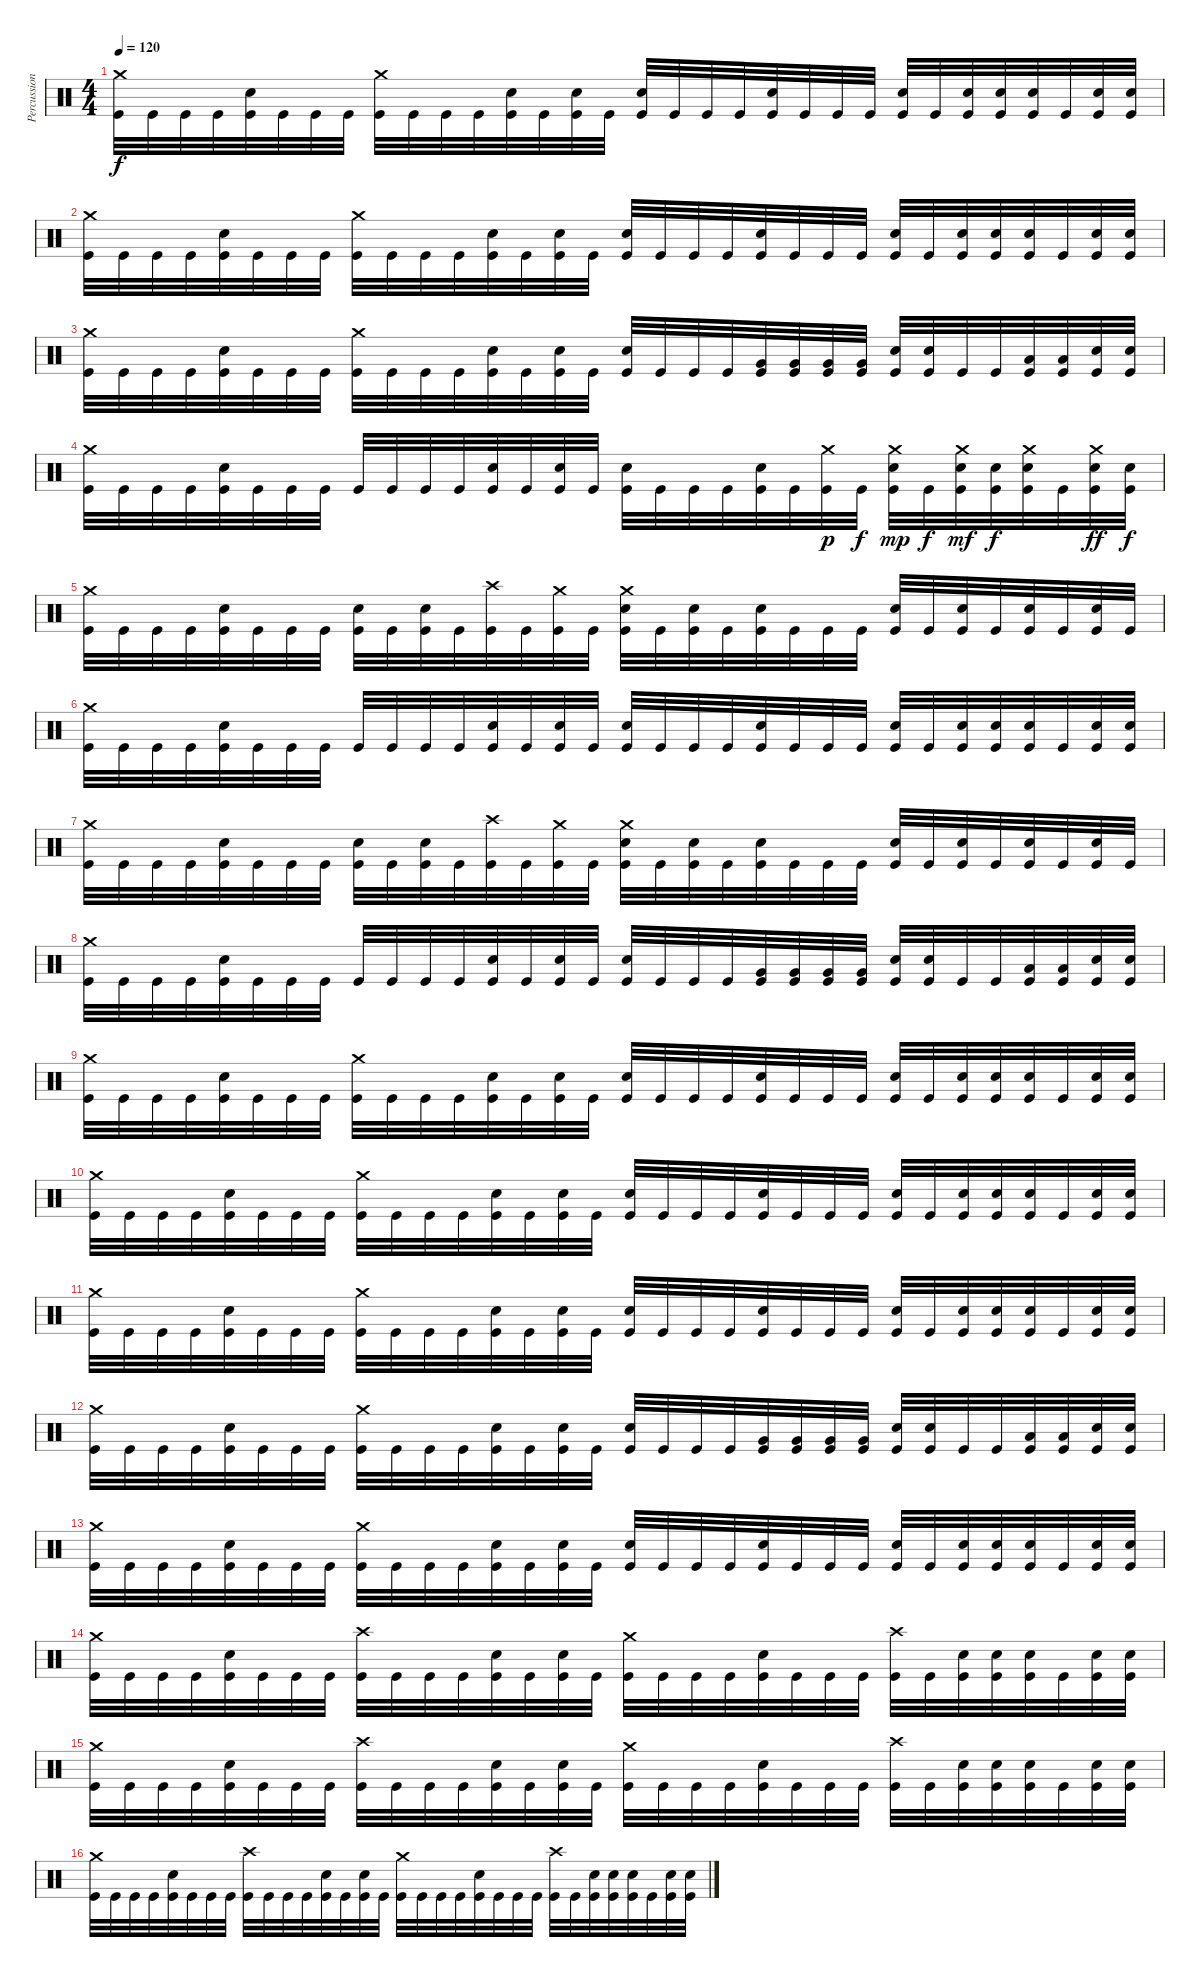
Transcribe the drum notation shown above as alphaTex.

\track ("Percussion" "Percussion") {instrument percussion}
\staff {score}
\articulation defaults
\ts (4 4)
\tempo 120
\clef neutral
\ks c
("Crash medium (hit)" "Kick (hit)").32{dy f} "Kick (hit)".32 "Kick (hit)".32 "Kick (hit)".32 ("Electric Snare (hit)" "Kick (hit)").32 "Kick (hit)".32 "Kick (hit)".32 "Kick (hit)".32 ("Crash medium (hit)" "Kick (hit)").32 "Kick (hit)".32 "Kick (hit)".32 "Kick (hit)".32 ("Electric Snare (hit)" "Kick (hit)").32 "Kick (hit)".32 ("Electric Snare (hit)" "Kick (hit)").32 "Kick (hit)".32 ("Electric Snare (hit)" "Kick (hit)").32 "Kick (hit)".32 "Kick (hit)".32 "Kick (hit)".32 ("Electric Snare (hit)" "Kick (hit)").32 "Kick (hit)".32 "Kick (hit)".32 "Kick (hit)".32 ("Electric Snare (hit)" "Kick (hit)").32 "Kick (hit)".32 ("Electric Snare (hit)" "Kick (hit)").32 ("Electric Snare (hit)" "Kick (hit)").32 ("Electric Snare (hit)" "Kick (hit)").32 "Kick (hit)".32 ("Electric Snare (hit)" "Kick (hit)").32 ("Electric Snare (hit)" "Kick (hit)").32 |
("Crash medium (hit)" "Kick (hit)").32 "Kick (hit)".32 "Kick (hit)".32 "Kick (hit)".32 ("Electric Snare (hit)" "Kick (hit)").32 "Kick (hit)".32 "Kick (hit)".32 "Kick (hit)".32 ("Crash medium (hit)" "Kick (hit)").32 "Kick (hit)".32 "Kick (hit)".32 "Kick (hit)".32 ("Electric Snare (hit)" "Kick (hit)").32 "Kick (hit)".32 ("Electric Snare (hit)" "Kick (hit)").32 "Kick (hit)".32 ("Electric Snare (hit)" "Kick (hit)").32 "Kick (hit)".32 "Kick (hit)".32 "Kick (hit)".32 ("Electric Snare (hit)" "Kick (hit)").32 "Kick (hit)".32 "Kick (hit)".32 "Kick (hit)".32 ("Electric Snare (hit)" "Kick (hit)").32 "Kick (hit)".32 ("Electric Snare (hit)" "Kick (hit)").32 ("Electric Snare (hit)" "Kick (hit)").32 ("Electric Snare (hit)" "Kick (hit)").32 "Kick (hit)".32 ("Electric Snare (hit)" "Kick (hit)").32 ("Electric Snare (hit)" "Kick (hit)").32 |
("Crash medium (hit)" "Kick (hit)").32 "Kick (hit)".32 "Kick (hit)".32 "Kick (hit)".32 ("Electric Snare (hit)" "Kick (hit)").32 "Kick (hit)".32 "Kick (hit)".32 "Kick (hit)".32 ("Crash medium (hit)" "Kick (hit)").32 "Kick (hit)".32 "Kick (hit)".32 "Kick (hit)".32 ("Electric Snare (hit)" "Kick (hit)").32 "Kick (hit)".32 ("Electric Snare (hit)" "Kick (hit)").32 "Kick (hit)".32 ("Electric Snare (hit)" "Kick (hit)").32 "Kick (hit)".32 "Kick (hit)".32 "Kick (hit)".32 ("Very Low Tom (hit)" "Kick (hit)").32 ("Very Low Tom (hit)" "Kick (hit)").32 ("Very Low Tom (hit)" "Kick (hit)").32 ("Very Low Tom (hit)" "Kick (hit)").32 ("Snare (hit) 2" "Kick (hit)").32 ("Snare (hit) 2" "Kick (hit)").32 "Kick (hit)".32 "Kick (hit)".32 ("Low Floor Tom (hit)" "Kick (hit)").32 ("Low Floor Tom (hit)" "Kick (hit)").32 ("Electric Snare (hit)" "Kick (hit)").32 ("Electric Snare (hit)" "Kick (hit)").32 |
("Crash medium (hit)" "Kick (hit)").32 "Kick (hit)".32 "Kick (hit)".32 "Kick (hit)".32 ("Electric Snare (hit)" "Kick (hit)").32 "Kick (hit)".32 "Kick (hit)".32 "Kick (hit)".32 "Kick (hit)".32 "Kick (hit)".32 "Kick (hit)".32 "Kick (hit)".32 ("Electric Snare (hit)" "Kick (hit)").32 "Kick (hit)".32 ("Electric Snare (hit)" "Kick (hit)").32 "Kick (hit)".32 ("Electric Snare (hit)" "Kick (hit)").32 "Kick (hit)".32 "Kick (hit)".32 "Kick (hit)".32 ("Electric Snare (hit)" "Kick (hit)").32 "Kick (hit)".32 ("Crash medium (hit)" "Kick (hit)").32{dy p} "Kick (hit)".32{dy f} ("Crash medium (hit)" "Electric Snare (hit)" "Kick (hit)").32{dy mp} "Kick (hit)".32{dy f} ("Crash medium (hit)" "Electric Snare (hit)" "Kick (hit)").32{dy mf} ("Electric Snare (hit)" "Kick (hit)").32{dy f} ("Crash medium (hit)" "Electric Snare (hit)" "Kick (hit)").32 "Kick (hit)".32 ("Crash medium (hit)" "Electric Snare (hit)" "Kick (hit)").32{dy ff} ("Electric Snare (hit)" "Kick (hit)").32{dy f} |
("Crash medium (hit)" "Kick (hit)").32 "Kick (hit)".32 "Kick (hit)".32 "Kick (hit)".32 ("Electric Snare (hit)" "Kick (hit)").32 "Kick (hit)".32 "Kick (hit)".32 "Kick (hit)".32 ("Electric Snare (hit)" "Kick (hit)").32 "Kick (hit)".32 ("Electric Snare (hit)" "Kick (hit)").32 "Kick (hit)".32 ("Crash high (hit)" "Kick (hit)").32 "Kick (hit)".32 ("Crash medium (hit)" "Kick (hit)").32 "Kick (hit)".32 ("Crash medium (hit)" "Electric Snare (hit)" "Kick (hit)").32 "Kick (hit)".32 ("Electric Snare (hit)" "Kick (hit)").32 "Kick (hit)".32 ("Electric Snare (hit)" "Kick (hit)").32 "Kick (hit)".32 "Kick (hit)".32 "Kick (hit)".32 ("Electric Snare (hit)" "Kick (hit)").32 "Kick (hit)".32 ("Electric Snare (hit)" "Kick (hit)").32 "Kick (hit)".32 ("Electric Snare (hit)" "Kick (hit)").32 "Kick (hit)".32 ("Electric Snare (hit)" "Kick (hit)").32 "Kick (hit)".32 |
("Crash medium (hit)" "Kick (hit)").32 "Kick (hit)".32 "Kick (hit)".32 "Kick (hit)".32 ("Electric Snare (hit)" "Kick (hit)").32 "Kick (hit)".32 "Kick (hit)".32 "Kick (hit)".32 "Kick (hit)".32 "Kick (hit)".32 "Kick (hit)".32 "Kick (hit)".32 ("Electric Snare (hit)" "Kick (hit)").32 "Kick (hit)".32 ("Electric Snare (hit)" "Kick (hit)").32 "Kick (hit)".32 ("Electric Snare (hit)" "Kick (hit)").32 "Kick (hit)".32 "Kick (hit)".32 "Kick (hit)".32 ("Electric Snare (hit)" "Kick (hit)").32 "Kick (hit)".32 "Kick (hit)".32 "Kick (hit)".32 ("Electric Snare (hit)" "Kick (hit)").32 "Kick (hit)".32 ("Electric Snare (hit)" "Kick (hit)").32 ("Electric Snare (hit)" "Kick (hit)").32 ("Electric Snare (hit)" "Kick (hit)").32 "Kick (hit)".32 ("Electric Snare (hit)" "Kick (hit)").32 ("Electric Snare (hit)" "Kick (hit)").32 |
("Crash medium (hit)" "Kick (hit)").32 "Kick (hit)".32 "Kick (hit)".32 "Kick (hit)".32 ("Electric Snare (hit)" "Kick (hit)").32 "Kick (hit)".32 "Kick (hit)".32 "Kick (hit)".32 ("Electric Snare (hit)" "Kick (hit)").32 "Kick (hit)".32 ("Electric Snare (hit)" "Kick (hit)").32 "Kick (hit)".32 ("Crash high (hit)" "Kick (hit)").32 "Kick (hit)".32 ("Crash medium (hit)" "Kick (hit)").32 "Kick (hit)".32 ("Crash medium (hit)" "Electric Snare (hit)" "Kick (hit)").32 "Kick (hit)".32 ("Electric Snare (hit)" "Kick (hit)").32 "Kick (hit)".32 ("Electric Snare (hit)" "Kick (hit)").32 "Kick (hit)".32 "Kick (hit)".32 "Kick (hit)".32 ("Electric Snare (hit)" "Kick (hit)").32 "Kick (hit)".32 ("Electric Snare (hit)" "Kick (hit)").32 "Kick (hit)".32 ("Electric Snare (hit)" "Kick (hit)").32 "Kick (hit)".32 ("Electric Snare (hit)" "Kick (hit)").32 "Kick (hit)".32 |
("Crash medium (hit)" "Kick (hit)").32 "Kick (hit)".32 "Kick (hit)".32 "Kick (hit)".32 ("Electric Snare (hit)" "Kick (hit)").32 "Kick (hit)".32 "Kick (hit)".32 "Kick (hit)".32 "Kick (hit)".32 "Kick (hit)".32 "Kick (hit)".32 "Kick (hit)".32 ("Electric Snare (hit)" "Kick (hit)").32 "Kick (hit)".32 ("Electric Snare (hit)" "Kick (hit)").32 "Kick (hit)".32 ("Electric Snare (hit)" "Kick (hit)").32 "Kick (hit)".32 "Kick (hit)".32 "Kick (hit)".32 ("Very Low Tom (hit)" "Kick (hit)").32 ("Very Low Tom (hit)" "Kick (hit)").32 ("Very Low Tom (hit)" "Kick (hit)").32 ("Very Low Tom (hit)" "Kick (hit)").32 ("Snare (hit) 2" "Kick (hit)").32 ("Snare (hit) 2" "Kick (hit)").32 "Kick (hit)".32 "Kick (hit)".32 ("Low Floor Tom (hit)" "Kick (hit)").32 ("Low Floor Tom (hit)" "Kick (hit)").32 ("Electric Snare (hit)" "Kick (hit)").32 ("Electric Snare (hit)" "Kick (hit)").32 |
("Crash medium (hit)" "Kick (hit)").32 "Kick (hit)".32 "Kick (hit)".32 "Kick (hit)".32 ("Electric Snare (hit)" "Kick (hit)").32 "Kick (hit)".32 "Kick (hit)".32 "Kick (hit)".32 ("Crash medium (hit)" "Kick (hit)").32 "Kick (hit)".32 "Kick (hit)".32 "Kick (hit)".32 ("Electric Snare (hit)" "Kick (hit)").32 "Kick (hit)".32 ("Electric Snare (hit)" "Kick (hit)").32 "Kick (hit)".32 ("Electric Snare (hit)" "Kick (hit)").32 "Kick (hit)".32 "Kick (hit)".32 "Kick (hit)".32 ("Electric Snare (hit)" "Kick (hit)").32 "Kick (hit)".32 "Kick (hit)".32 "Kick (hit)".32 ("Electric Snare (hit)" "Kick (hit)").32 "Kick (hit)".32 ("Electric Snare (hit)" "Kick (hit)").32 ("Electric Snare (hit)" "Kick (hit)").32 ("Electric Snare (hit)" "Kick (hit)").32 "Kick (hit)".32 ("Electric Snare (hit)" "Kick (hit)").32 ("Electric Snare (hit)" "Kick (hit)").32 |
("Crash medium (hit)" "Kick (hit)").32 "Kick (hit)".32 "Kick (hit)".32 "Kick (hit)".32 ("Electric Snare (hit)" "Kick (hit)").32 "Kick (hit)".32 "Kick (hit)".32 "Kick (hit)".32 ("Crash medium (hit)" "Kick (hit)").32 "Kick (hit)".32 "Kick (hit)".32 "Kick (hit)".32 ("Electric Snare (hit)" "Kick (hit)").32 "Kick (hit)".32 ("Electric Snare (hit)" "Kick (hit)").32 "Kick (hit)".32 ("Electric Snare (hit)" "Kick (hit)").32 "Kick (hit)".32 "Kick (hit)".32 "Kick (hit)".32 ("Electric Snare (hit)" "Kick (hit)").32 "Kick (hit)".32 "Kick (hit)".32 "Kick (hit)".32 ("Electric Snare (hit)" "Kick (hit)").32 "Kick (hit)".32 ("Electric Snare (hit)" "Kick (hit)").32 ("Electric Snare (hit)" "Kick (hit)").32 ("Electric Snare (hit)" "Kick (hit)").32 "Kick (hit)".32 ("Electric Snare (hit)" "Kick (hit)").32 ("Electric Snare (hit)" "Kick (hit)").32 |
("Crash medium (hit)" "Kick (hit)").32 "Kick (hit)".32 "Kick (hit)".32 "Kick (hit)".32 ("Electric Snare (hit)" "Kick (hit)").32 "Kick (hit)".32 "Kick (hit)".32 "Kick (hit)".32 ("Crash medium (hit)" "Kick (hit)").32 "Kick (hit)".32 "Kick (hit)".32 "Kick (hit)".32 ("Electric Snare (hit)" "Kick (hit)").32 "Kick (hit)".32 ("Electric Snare (hit)" "Kick (hit)").32 "Kick (hit)".32 ("Electric Snare (hit)" "Kick (hit)").32 "Kick (hit)".32 "Kick (hit)".32 "Kick (hit)".32 ("Electric Snare (hit)" "Kick (hit)").32 "Kick (hit)".32 "Kick (hit)".32 "Kick (hit)".32 ("Electric Snare (hit)" "Kick (hit)").32 "Kick (hit)".32 ("Electric Snare (hit)" "Kick (hit)").32 ("Electric Snare (hit)" "Kick (hit)").32 ("Electric Snare (hit)" "Kick (hit)").32 "Kick (hit)".32 ("Electric Snare (hit)" "Kick (hit)").32 ("Electric Snare (hit)" "Kick (hit)").32 |
("Crash medium (hit)" "Kick (hit)").32 "Kick (hit)".32 "Kick (hit)".32 "Kick (hit)".32 ("Electric Snare (hit)" "Kick (hit)").32 "Kick (hit)".32 "Kick (hit)".32 "Kick (hit)".32 ("Crash medium (hit)" "Kick (hit)").32 "Kick (hit)".32 "Kick (hit)".32 "Kick (hit)".32 ("Electric Snare (hit)" "Kick (hit)").32 "Kick (hit)".32 ("Electric Snare (hit)" "Kick (hit)").32 "Kick (hit)".32 ("Electric Snare (hit)" "Kick (hit)").32 "Kick (hit)".32 "Kick (hit)".32 "Kick (hit)".32 ("Very Low Tom (hit)" "Kick (hit)").32 ("Very Low Tom (hit)" "Kick (hit)").32 ("Very Low Tom (hit)" "Kick (hit)").32 ("Very Low Tom (hit)" "Kick (hit)").32 ("Snare (hit) 2" "Kick (hit)").32 ("Snare (hit) 2" "Kick (hit)").32 "Kick (hit)".32 "Kick (hit)".32 ("Low Floor Tom (hit)" "Kick (hit)").32 ("Low Floor Tom (hit)" "Kick (hit)").32 ("Electric Snare (hit)" "Kick (hit)").32 ("Electric Snare (hit)" "Kick (hit)").32 |
("Crash medium (hit)" "Kick (hit)").32 "Kick (hit)".32 "Kick (hit)".32 "Kick (hit)".32 ("Electric Snare (hit)" "Kick (hit)").32 "Kick (hit)".32 "Kick (hit)".32 "Kick (hit)".32 ("Crash medium (hit)" "Kick (hit)").32 "Kick (hit)".32 "Kick (hit)".32 "Kick (hit)".32 ("Electric Snare (hit)" "Kick (hit)").32 "Kick (hit)".32 ("Electric Snare (hit)" "Kick (hit)").32 "Kick (hit)".32 ("Electric Snare (hit)" "Kick (hit)").32 "Kick (hit)".32 "Kick (hit)".32 "Kick (hit)".32 ("Electric Snare (hit)" "Kick (hit)").32 "Kick (hit)".32 "Kick (hit)".32 "Kick (hit)".32 ("Electric Snare (hit)" "Kick (hit)").32 "Kick (hit)".32 ("Electric Snare (hit)" "Kick (hit)").32 ("Electric Snare (hit)" "Kick (hit)").32 ("Electric Snare (hit)" "Kick (hit)").32 "Kick (hit)".32 ("Electric Snare (hit)" "Kick (hit)").32 ("Electric Snare (hit)" "Kick (hit)").32 |
("Crash medium (hit)" "Kick (hit)").32 "Kick (hit)".32 "Kick (hit)".32 "Kick (hit)".32 ("Electric Snare (hit)" "Kick (hit)").32 "Kick (hit)".32 "Kick (hit)".32 "Kick (hit)".32 ("Crash high (hit)" "Kick (hit)").32 "Kick (hit)".32 "Kick (hit)".32 "Kick (hit)".32 ("Electric Snare (hit)" "Kick (hit)").32 "Kick (hit)".32 ("Electric Snare (hit)" "Kick (hit)").32 "Kick (hit)".32 ("Crash medium (hit)" "Kick (hit)").32 "Kick (hit)".32 "Kick (hit)".32 "Kick (hit)".32 ("Electric Snare (hit)" "Kick (hit)").32 "Kick (hit)".32 "Kick (hit)".32 "Kick (hit)".32 ("Crash high (hit)" "Kick (hit)").32 "Kick (hit)".32 ("Electric Snare (hit)" "Kick (hit)").32 ("Electric Snare (hit)" "Kick (hit)").32 ("Electric Snare (hit)" "Kick (hit)").32 "Kick (hit)".32 ("Electric Snare (hit)" "Kick (hit)").32 ("Electric Snare (hit)" "Kick (hit)").32 |
("Crash medium (hit)" "Kick (hit)").32 "Kick (hit)".32 "Kick (hit)".32 "Kick (hit)".32 ("Electric Snare (hit)" "Kick (hit)").32 "Kick (hit)".32 "Kick (hit)".32 "Kick (hit)".32 ("Crash high (hit)" "Kick (hit)").32 "Kick (hit)".32 "Kick (hit)".32 "Kick (hit)".32 ("Electric Snare (hit)" "Kick (hit)").32 "Kick (hit)".32 ("Electric Snare (hit)" "Kick (hit)").32 "Kick (hit)".32 ("Crash medium (hit)" "Kick (hit)").32 "Kick (hit)".32 "Kick (hit)".32 "Kick (hit)".32 ("Electric Snare (hit)" "Kick (hit)").32 "Kick (hit)".32 "Kick (hit)".32 "Kick (hit)".32 ("Crash high (hit)" "Kick (hit)").32 "Kick (hit)".32 ("Electric Snare (hit)" "Kick (hit)").32 ("Electric Snare (hit)" "Kick (hit)").32 ("Electric Snare (hit)" "Kick (hit)").32 "Kick (hit)".32 ("Electric Snare (hit)" "Kick (hit)").32 ("Electric Snare (hit)" "Kick (hit)").32 |
("Crash medium (hit)" "Kick (hit)").32 "Kick (hit)".32 "Kick (hit)".32 "Kick (hit)".32 ("Electric Snare (hit)" "Kick (hit)").32 "Kick (hit)".32 "Kick (hit)".32 "Kick (hit)".32 ("Crash high (hit)" "Kick (hit)").32 "Kick (hit)".32 "Kick (hit)".32 "Kick (hit)".32 ("Electric Snare (hit)" "Kick (hit)").32 "Kick (hit)".32 ("Electric Snare (hit)" "Kick (hit)").32 "Kick (hit)".32 ("Crash medium (hit)" "Kick (hit)").32 "Kick (hit)".32 "Kick (hit)".32 "Kick (hit)".32 ("Electric Snare (hit)" "Kick (hit)").32 "Kick (hit)".32 "Kick (hit)".32 "Kick (hit)".32 ("Crash high (hit)" "Kick (hit)").32 "Kick (hit)".32 ("Electric Snare (hit)" "Kick (hit)").32 ("Electric Snare (hit)" "Kick (hit)").32 ("Electric Snare (hit)" "Kick (hit)").32 "Kick (hit)".32 ("Electric Snare (hit)" "Kick (hit)").32 ("Electric Snare (hit)" "Kick (hit)").32
